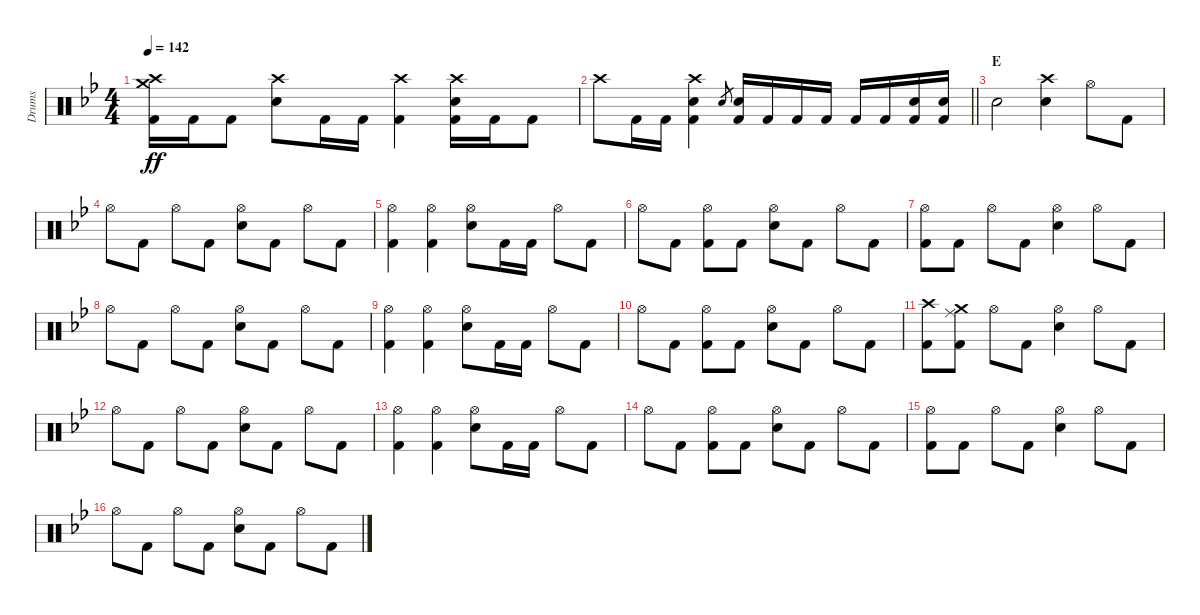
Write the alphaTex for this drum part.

\track ("Drums" "Drums") {instrument percussion}
\staff {score}
\articulation defaults
\ts (4 4)
\tempo 142
\clef neutral
\ks gminor
("Crash medium (hit)" "Crash high (hit)" "Kick (hit) 2").16{dy ff} "Kick (hit) 2".16 "Kick (hit) 2".8 ("Crash high (hit)" "Electric Snare (hit)").8 "Kick (hit) 2".16 "Kick (hit) 2".16 ("Crash high (hit)" "Kick (hit) 2").4 ("Crash high (hit)" "Electric Snare (hit)" "Kick (hit) 2").16 "Kick (hit) 2".16 "Kick (hit) 2".8 |
\barLineRight lightlight "Crash high (hit)".8 "Kick (hit) 2".16 "Kick (hit) 2".16
("Crash high (hit)" "Electric Snare (hit)" "Kick (hit) 2").4 "Electric Snare (hit)".8{gr} ("Electric Snare (hit)" "Kick (hit) 2").16 "Kick (hit) 2".16 "Kick (hit) 2".16 "Kick (hit) 2".16 "Kick (hit) 2".16 "Kick (hit) 2".16 ("Electric Snare (hit)" "Kick (hit) 2").16 ("Electric Snare (hit)" "Kick (hit) 2").16 |
\section ("" "E")
"Electric Snare (hit)".2 ("Crash high (hit)" "Electric Snare (hit)").4 "Hi-Hat (open)".8 "Kick (hit) 2".8 |
"Hi-Hat (open)".8 "Kick (hit) 2".8 "Hi-Hat (open)".8 "Kick (hit) 2".8 ("Hi-Hat (open)" "Electric Snare (hit)").8 "Kick (hit) 2".8 "Hi-Hat (open)".8 "Kick (hit) 2".8 |
("Hi-Hat (open)" "Kick (hit) 2").4 ("Hi-Hat (open)" "Kick (hit) 2").4 ("Hi-Hat (open)" "Electric Snare (hit)").8 "Kick (hit) 2".16 "Kick (hit) 2".16 "Hi-Hat (open)".8 "Kick (hit) 2".8 |
"Hi-Hat (open)".8 "Kick (hit) 2".8 ("Hi-Hat (open)" "Kick (hit) 2").8 "Kick (hit) 2".8 ("Hi-Hat (open)" "Electric Snare (hit)").8 "Kick (hit) 2".8 "Hi-Hat (open)".8 "Kick (hit) 2".8 |
("Hi-Hat (open)" "Kick (hit) 2").8 "Kick (hit) 2".8 "Hi-Hat (open)".8 "Kick (hit) 2".8 ("Hi-Hat (open)" "Electric Snare (hit)").4 "Hi-Hat (open)".8 "Kick (hit) 2".8 |
"Hi-Hat (open)".8 "Kick (hit) 2".8 "Hi-Hat (open)".8 "Kick (hit) 2".8 ("Hi-Hat (open)" "Electric Snare (hit)").8 "Kick (hit) 2".8 "Hi-Hat (open)".8 "Kick (hit) 2".8 |
("Hi-Hat (open)" "Kick (hit) 2").4 ("Hi-Hat (open)" "Kick (hit) 2").4 ("Hi-Hat (open)" "Electric Snare (hit)").8 "Kick (hit) 2".16 "Kick (hit) 2".16 "Hi-Hat (open)".8 "Kick (hit) 2".8 |
"Hi-Hat (open)".8 "Kick (hit) 2".8 ("Hi-Hat (open)" "Kick (hit) 2").8 "Kick (hit) 2".8 ("Hi-Hat (open)" "Electric Snare (hit)").8 "Kick (hit) 2".8 "Hi-Hat (open)".8 "Kick (hit) 2".8 |
("Crash high (hit)" "Kick (hit) 2").8 ("Crash medium (hit)" "Ride (middle)" "Kick (hit) 2").8 "Hi-Hat (open)".8 "Kick (hit) 2".8 ("Hi-Hat (open)" "Electric Snare (hit)").4 "Hi-Hat (open)".8 "Kick (hit) 2".8 |
"Hi-Hat (open)".8 "Kick (hit) 2".8 "Hi-Hat (open)".8 "Kick (hit) 2".8 ("Hi-Hat (open)" "Electric Snare (hit)").8 "Kick (hit) 2".8 "Hi-Hat (open)".8 "Kick (hit) 2".8 |
("Hi-Hat (open)" "Kick (hit) 2").4 ("Hi-Hat (open)" "Kick (hit) 2").4 ("Hi-Hat (open)" "Electric Snare (hit)").8 "Kick (hit) 2".16 "Kick (hit) 2".16 "Hi-Hat (open)".8 "Kick (hit) 2".8 |
"Hi-Hat (open)".8 "Kick (hit) 2".8 ("Hi-Hat (open)" "Kick (hit) 2").8 "Kick (hit) 2".8 ("Hi-Hat (open)" "Electric Snare (hit)").8 "Kick (hit) 2".8 "Hi-Hat (open)".8 "Kick (hit) 2".8 |
("Hi-Hat (open)" "Kick (hit) 2").8 "Kick (hit) 2".8 "Hi-Hat (open)".8 "Kick (hit) 2".8 ("Hi-Hat (open)" "Electric Snare (hit)").4 "Hi-Hat (open)".8 "Kick (hit) 2".8 |
"Hi-Hat (open)".8 "Kick (hit) 2".8 "Hi-Hat (open)".8 "Kick (hit) 2".8 ("Hi-Hat (open)" "Electric Snare (hit)").8 "Kick (hit) 2".8 "Hi-Hat (open)".8 "Kick (hit) 2".8
